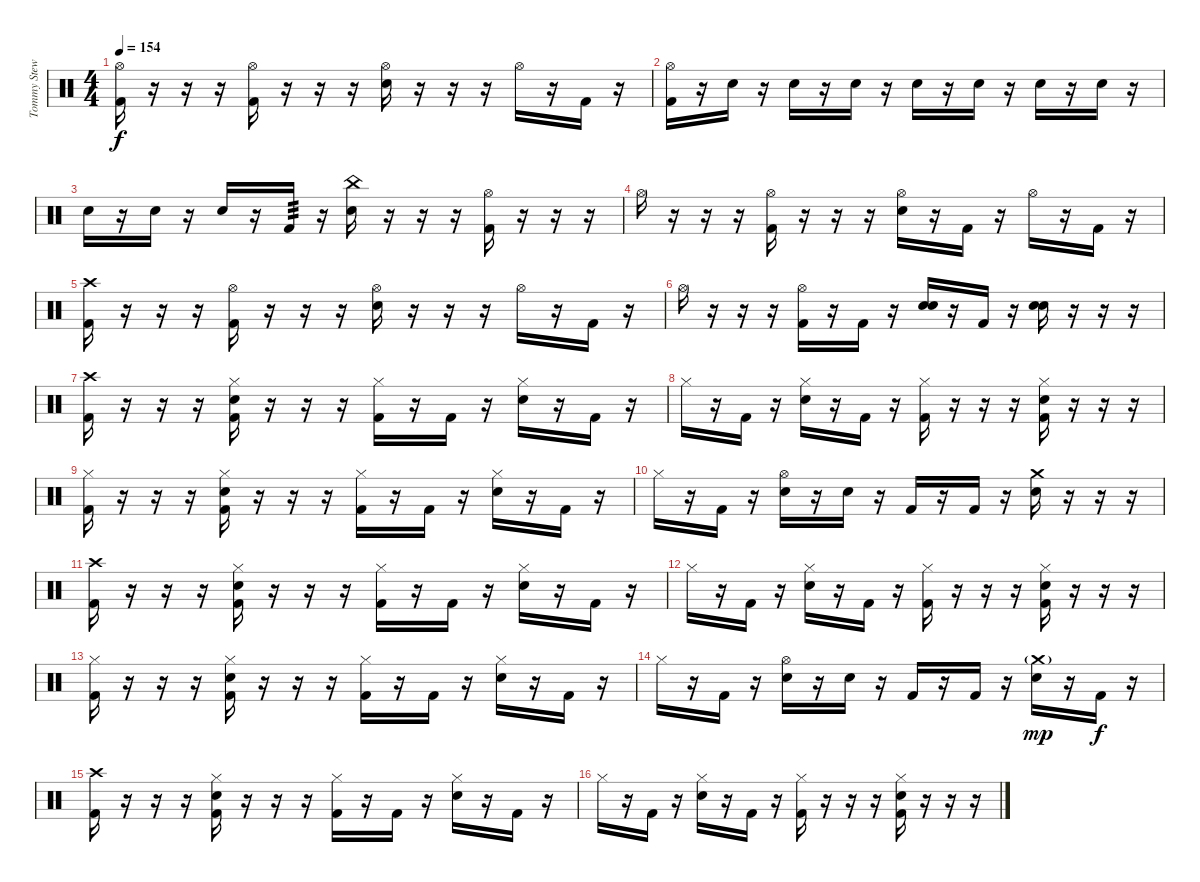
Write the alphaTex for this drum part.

\track ("Tommy Stewart" "Tommy Stew") {instrument percussion}
\staff {score}
\articulation defaults
\ts (4 4)
\tempo 154
\clef neutral
\ks c
("Hi-Hat (open)" "Kick (hit) 2").16{dy f} r.16 r.16 r.16 ("Hi-Hat (open)" "Kick (hit) 2").16 r.16 r.16 r.16 ("Hi-Hat (open)" "Snare (hit) 2").16 r.16 r.16 r.16 "Hi-Hat (open)".16 r.16 "Kick (hit) 2".16 r.16 |
("Hi-Hat (open)" "Kick (hit) 2").16 r.16 "Snare (hit) 2".16 r.16 "Snare (hit) 2".16 r.16 "Snare (hit) 2".16 r.16 "Snare (hit) 2".16 r.16 "Snare (hit) 2".16 r.16 "Snare (hit) 2".16 r.16 "Snare (hit) 2".16 r.16 |
"Snare (hit) 2".16 r.16 "Snare (hit) 2".16 r.16 "Snare (hit) 2".16 r.16 "Kick (hit) 2".16{tp 3} r.16 ("China (hit)" "Snare (hit) 2").16 r.16 r.16 r.16 ("Hi-Hat (open)" "Kick (hit) 2").16 r.16 r.16 r.16 |
"Hi-Hat (open)".16 r.16 r.16 r.16 ("Hi-Hat (open)" "Kick (hit) 2").16 r.16 r.16 r.16 ("Hi-Hat (open)" "Snare (hit) 2").16 r.16 "Kick (hit) 2".16 r.16 "Hi-Hat (open)".16 r.16 "Kick (hit) 2".16 r.16 |
("Crash high (hit)" "Kick (hit) 2").16 r.16 r.16 r.16 ("Hi-Hat (open)" "Kick (hit) 2").16 r.16 r.16 r.16 ("Hi-Hat (open)" "Snare (hit) 2").16 r.16 r.16 r.16 "Hi-Hat (open)".16 r.16 "Kick (hit) 2".16 r.16 |
"Hi-Hat (open)".16 r.16 r.16 r.16 ("Hi-Hat (open)" "Kick (hit) 2").16 r.16 "Kick (hit) 2".16 r.16 ("Snare (hit) 2" "Snare (hit) 2").16 r.16 "Kick (hit) 2".16 r.16 ("Snare (hit) 2" "Snare (hit) 2").16 r.16 r.16 r.16 |
("Crash high (hit)" "Kick (hit) 2").16 r.16 r.16 r.16 ("Hi-Hat (closed)" "Snare (hit) 2" "Kick (hit) 2").16 r.16 r.16 r.16 ("Hi-Hat (closed)" "Kick (hit) 2").16 r.16 "Kick (hit) 2".16 r.16 ("Hi-Hat (closed)" "Snare (hit) 2").16 r.16 "Kick (hit) 2".16 r.16 |
"Hi-Hat (closed)".16 r.16 "Kick (hit) 2".16 r.16 ("Hi-Hat (closed)" "Snare (hit) 2").16 r.16 "Kick (hit) 2".16 r.16 ("Hi-Hat (closed)" "Kick (hit) 2").16 r.16 r.16 r.16 ("Hi-Hat (closed)" "Snare (hit) 2" "Kick (hit) 2").16 r.16 r.16 r.16 |
("Hi-Hat (closed)" "Kick (hit) 2").16 r.16 r.16 r.16 ("Hi-Hat (closed)" "Snare (hit) 2" "Kick (hit) 2").16 r.16 r.16 r.16 ("Hi-Hat (closed)" "Kick (hit) 2").16 r.16 "Kick (hit) 2".16 r.16 ("Hi-Hat (closed)" "Snare (hit) 2").16 r.16 "Kick (hit) 2".16 r.16 |
"Hi-Hat (closed)".16 r.16 "Kick (hit) 2".16 r.16 ("Hi-Hat (open)" "Snare (hit) 2").16 r.16 "Snare (hit) 2".16 r.16 "Kick (hit) 2".16 r.16 "Kick (hit) 2".16 r.16 ("Crash medium (hit)" "Snare (hit) 2").16 r.16 r.16 r.16 |
("Crash high (hit)" "Kick (hit) 2").16 r.16 r.16 r.16 ("Hi-Hat (closed)" "Snare (hit) 2" "Kick (hit) 2").16 r.16 r.16 r.16 ("Hi-Hat (closed)" "Kick (hit) 2").16 r.16 "Kick (hit) 2".16 r.16 ("Hi-Hat (closed)" "Snare (hit) 2").16 r.16 "Kick (hit) 2".16 r.16 |
"Hi-Hat (closed)".16 r.16 "Kick (hit) 2".16 r.16 ("Hi-Hat (closed)" "Snare (hit) 2").16 r.16 "Kick (hit) 2".16 r.16 ("Hi-Hat (closed)" "Kick (hit) 2").16 r.16 r.16 r.16 ("Hi-Hat (closed)" "Snare (hit) 2" "Kick (hit) 2").16 r.16 r.16 r.16 |
("Hi-Hat (closed)" "Kick (hit) 2").16 r.16 r.16 r.16 ("Hi-Hat (closed)" "Snare (hit) 2" "Kick (hit) 2").16 r.16 r.16 r.16 ("Hi-Hat (closed)" "Kick (hit) 2").16 r.16 "Kick (hit) 2".16 r.16 ("Hi-Hat (closed)" "Snare (hit) 2").16 r.16 "Kick (hit) 2".16 r.16 |
"Hi-Hat (closed)".16 r.16 "Kick (hit) 2".16 r.16 ("Hi-Hat (open)" "Snare (hit) 2").16 r.16 "Snare (hit) 2".16 r.16 "Kick (hit) 2".16 r.16 "Kick (hit) 2".16 r.16 ("Crash medium (hit)"{g} "Snare (hit) 2").16{dy mp} r.16 "Kick (hit) 2".16{dy f} r.16 |
("Crash high (hit)" "Kick (hit) 2").16 r.16 r.16 r.16 ("Hi-Hat (closed)" "Snare (hit) 2" "Kick (hit) 2").16 r.16 r.16 r.16 ("Hi-Hat (closed)" "Kick (hit) 2").16 r.16 "Kick (hit) 2".16 r.16 ("Hi-Hat (closed)" "Snare (hit) 2").16 r.16 "Kick (hit) 2".16 r.16 |
"Hi-Hat (closed)".16 r.16 "Kick (hit) 2".16 r.16 ("Hi-Hat (closed)" "Snare (hit) 2").16 r.16 "Kick (hit) 2".16 r.16 ("Hi-Hat (closed)" "Kick (hit) 2").16 r.16 r.16 r.16 ("Hi-Hat (closed)" "Snare (hit) 2" "Kick (hit) 2").16 r.16 r.16 r.16
